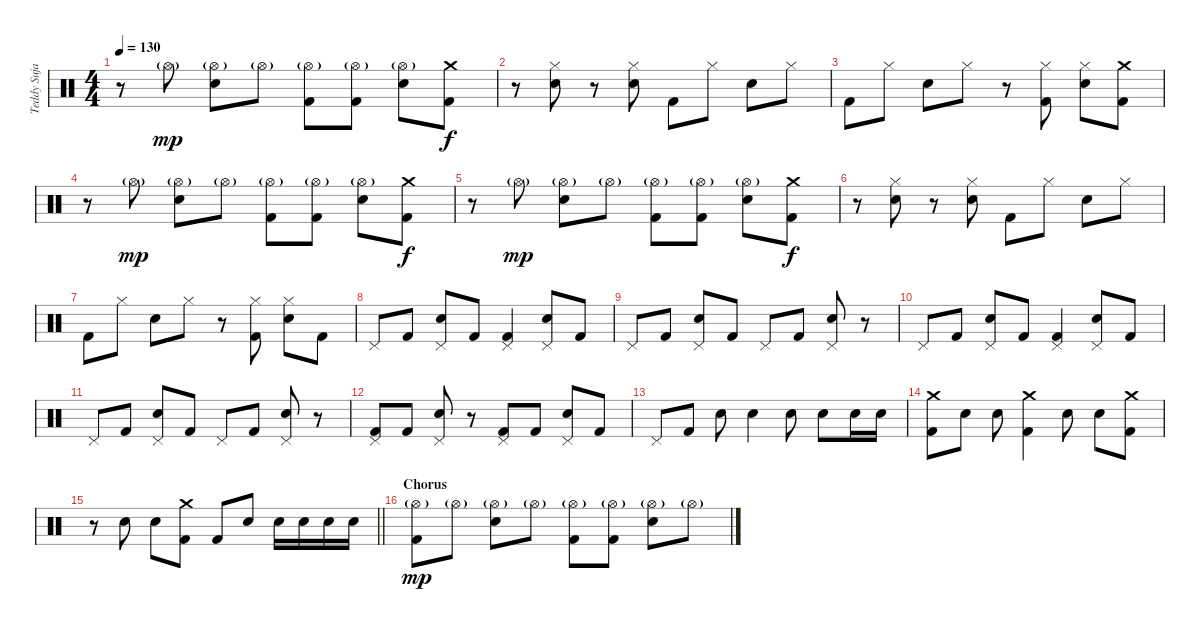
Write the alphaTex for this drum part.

\track ("Teddy Sujaya" "Teddy Suja") {instrument percussion}
\staff {score}
\articulation defaults
\ts (4 4)
\tempo 130
\clef neutral
\ks c
r.8{dy f} "Hi-Hat (open)"{g}.8{dy mp} ("Hi-Hat (open)"{g} "Electric Snare (hit)").8 "Hi-Hat (open)"{g}.8 ("Hi-Hat (open)"{g} "Kick (hit) 2").8 ("Hi-Hat (open)"{g} "Kick (hit) 2").8 ("Hi-Hat (open)"{g} "Electric Snare (hit)").8 ("Crash medium (hit)" "Kick (hit) 2").8{dy f} |
r.8 ("Hi-Hat (closed)" "Electric Snare (hit)").8 r.8 ("Hi-Hat (closed)" "Electric Snare (hit)").8 "Kick (hit) 2".8 "Hi-Hat (closed)".8 "Electric Snare (hit)".8 "Hi-Hat (closed)".8 |
"Kick (hit) 2".8 "Hi-Hat (closed)".8 "Electric Snare (hit)".8 "Hi-Hat (closed)".8 r.8 ("Hi-Hat (closed)" "Kick (hit) 2").8 ("Hi-Hat (closed)" "Electric Snare (hit)").8 ("Crash medium (hit)" "Kick (hit) 2").8 |
r.8 "Hi-Hat (open)"{g}.8{dy mp} ("Hi-Hat (open)"{g} "Electric Snare (hit)").8 "Hi-Hat (open)"{g}.8 ("Hi-Hat (open)"{g} "Kick (hit) 2").8 ("Hi-Hat (open)"{g} "Kick (hit) 2").8 ("Hi-Hat (open)"{g} "Electric Snare (hit)").8 ("Crash medium (hit)" "Kick (hit) 2").8{dy f} |
r.8 "Hi-Hat (open)"{g}.8{dy mp} ("Hi-Hat (open)"{g} "Electric Snare (hit)").8 "Hi-Hat (open)"{g}.8 ("Hi-Hat (open)"{g} "Kick (hit) 2").8 ("Hi-Hat (open)"{g} "Kick (hit) 2").8 ("Hi-Hat (open)"{g} "Electric Snare (hit)").8 ("Crash medium (hit)" "Kick (hit) 2").8{dy f} |
r.8 ("Hi-Hat (closed)" "Electric Snare (hit)").8 r.8 ("Hi-Hat (closed)" "Electric Snare (hit)").8 "Kick (hit) 2".8 "Hi-Hat (closed)".8 "Electric Snare (hit)".8 "Hi-Hat (closed)".8 |
"Kick (hit) 2".8 "Hi-Hat (closed)".8 "Electric Snare (hit)".8 "Hi-Hat (closed)".8 r.8 ("Hi-Hat (closed)" "Kick (hit) 2").8 ("Hi-Hat (closed)" "Electric Snare (hit)").8 "Kick (hit) 2".8 |
"Pedal Hi-Hat (hit)".8 "Kick (hit) 2".8 ("Pedal Hi-Hat (hit)" "Electric Snare (hit)").8 "Kick (hit) 2".8 ("Pedal Hi-Hat (hit)" "Kick (hit) 2").4 ("Pedal Hi-Hat (hit)" "Electric Snare (hit)").8 "Kick (hit) 2".8 |
"Pedal Hi-Hat (hit)".8 "Kick (hit) 2".8 ("Pedal Hi-Hat (hit)" "Electric Snare (hit)").8 "Kick (hit) 2".8 "Pedal Hi-Hat (hit)".8 "Kick (hit) 2".8 ("Pedal Hi-Hat (hit)" "Electric Snare (hit)").8 r.8 |
"Pedal Hi-Hat (hit)".8 "Kick (hit) 2".8 ("Pedal Hi-Hat (hit)" "Electric Snare (hit)").8 "Kick (hit) 2".8 ("Pedal Hi-Hat (hit)" "Kick (hit) 2").4 ("Pedal Hi-Hat (hit)" "Electric Snare (hit)").8 "Kick (hit) 2".8 |
"Pedal Hi-Hat (hit)".8 "Kick (hit) 2".8 ("Pedal Hi-Hat (hit)" "Electric Snare (hit)").8 "Kick (hit) 2".8 "Pedal Hi-Hat (hit)".8 "Kick (hit) 2".8 ("Pedal Hi-Hat (hit)" "Electric Snare (hit)").8 r.8 |
("Pedal Hi-Hat (hit)" "Kick (hit) 2").8 "Kick (hit) 2".8 ("Pedal Hi-Hat (hit)" "Electric Snare (hit)").8 r.8 ("Pedal Hi-Hat (hit)" "Kick (hit) 2").8 "Kick (hit) 2".8 ("Pedal Hi-Hat (hit)" "Electric Snare (hit)").8 "Kick (hit) 2".8 |
"Pedal Hi-Hat (hit)".8 "Kick (hit) 2".8 "Electric Snare (hit)".8 "Electric Snare (hit)".4 "Electric Snare (hit)".8 "Electric Snare (hit)".8 "Electric Snare (hit)".16 "Electric Snare (hit)".16 |
("Crash medium (hit)" "Kick (hit) 2").8 "Electric Snare (hit)".8 "Electric Snare (hit)".8 ("Crash medium (hit)" "Kick (hit) 2").4 "Electric Snare (hit)".8 "Electric Snare (hit)".8 ("Crash medium (hit)" "Kick (hit) 2").8 |
\barLineRight lightlight
r.8 "Electric Snare (hit)".8 "Electric Snare (hit)".8 ("Crash medium (hit)" "Kick (hit) 2").8 "Kick (hit) 2".8 "Electric Snare (hit)".8 "Electric Snare (hit)".16 "Electric Snare (hit)".16 "Electric Snare (hit)".16 "Electric Snare (hit)".16 |
\section ("" "Chorus")
("Hi-Hat (open)"{g} "Kick (hit) 2").8{dy mp} "Hi-Hat (open)"{g}.8 ("Hi-Hat (open)"{g} "Electric Snare (hit)").8 "Hi-Hat (open)"{g}.8 ("Hi-Hat (open)"{g} "Kick (hit) 2").8 ("Hi-Hat (open)"{g} "Kick (hit) 2").8 ("Hi-Hat (open)"{g} "Electric Snare (hit)").8 "Hi-Hat (open)"{g}.8
